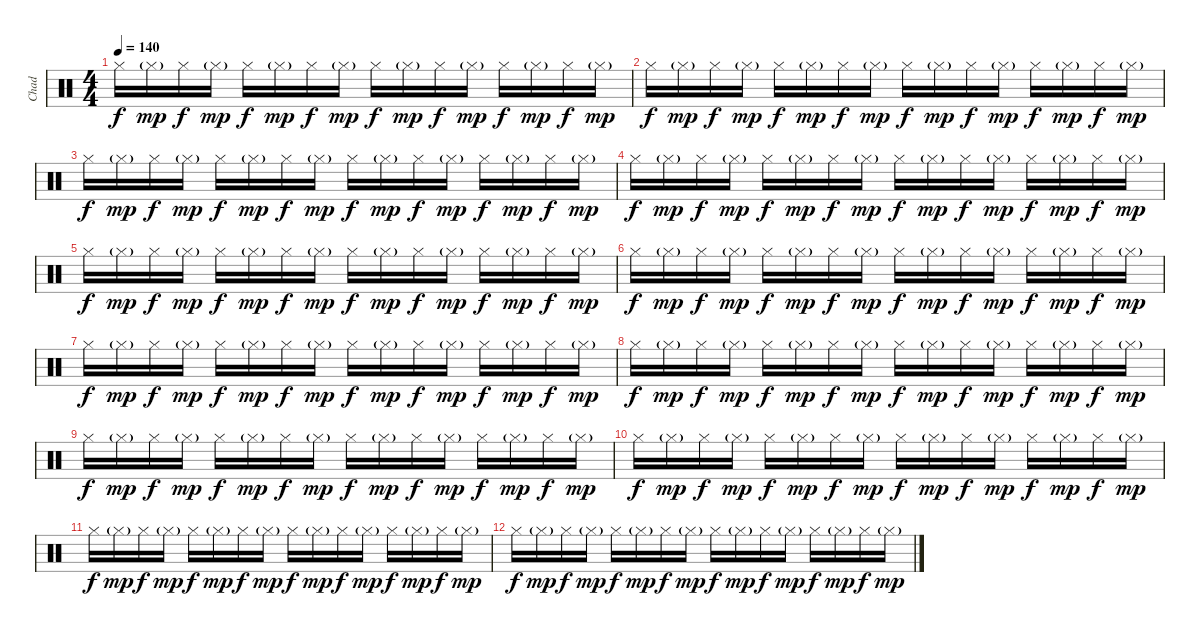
\track ("Chad" "Chad") {instrument percussion}
\staff {score}
\articulation defaults
\ts (4 4)
\tempo 140
\clef neutral
\ks c "Hi-Hat (closed)".16{dy f} "Hi-Hat (closed)"{g}.16{dy mp} "Hi-Hat (closed)".16{dy f} "Hi-Hat (closed)"{g}.16{dy mp} "Hi-Hat (closed)".16{dy f} "Hi-Hat (closed)"{g}.16{dy mp} "Hi-Hat (closed)".16{dy f} "Hi-Hat (closed)"{g}.16{dy mp} "Hi-Hat (closed)".16{dy f} "Hi-Hat (closed)"{g}.16{dy mp} "Hi-Hat (closed)".16{dy f} "Hi-Hat (closed)"{g}.16{dy mp} "Hi-Hat (closed)".16{dy f} "Hi-Hat (closed)"{g}.16{dy mp} "Hi-Hat (closed)".16{dy f} "Hi-Hat (closed)"{g}.16{dy mp}
|
"Hi-Hat (closed)".16{dy f} "Hi-Hat (closed)"{g}.16{dy mp} "Hi-Hat (closed)".16{dy f} "Hi-Hat (closed)"{g}.16{dy mp} "Hi-Hat (closed)".16{dy f} "Hi-Hat (closed)"{g}.16{dy mp} "Hi-Hat (closed)".16{dy f} "Hi-Hat (closed)"{g}.16{dy mp} "Hi-Hat (closed)".16{dy f} "Hi-Hat (closed)"{g}.16{dy mp} "Hi-Hat (closed)".16{dy f} "Hi-Hat (closed)"{g}.16{dy mp} "Hi-Hat (closed)".16{dy f} "Hi-Hat (closed)"{g}.16{dy mp} "Hi-Hat (closed)".16{dy f} "Hi-Hat (closed)"{g}.16{dy mp} |
"Hi-Hat (closed)".16{dy f} "Hi-Hat (closed)"{g}.16{dy mp} "Hi-Hat (closed)".16{dy f} "Hi-Hat (closed)"{g}.16{dy mp} "Hi-Hat (closed)".16{dy f} "Hi-Hat (closed)"{g}.16{dy mp} "Hi-Hat (closed)".16{dy f} "Hi-Hat (closed)"{g}.16{dy mp} "Hi-Hat (closed)".16{dy f} "Hi-Hat (closed)"{g}.16{dy mp} "Hi-Hat (closed)".16{dy f} "Hi-Hat (closed)"{g}.16{dy mp} "Hi-Hat (closed)".16{dy f} "Hi-Hat (closed)"{g}.16{dy mp} "Hi-Hat (closed)".16{dy f} "Hi-Hat (closed)"{g}.16{dy mp} |
"Hi-Hat (closed)".16{dy f} "Hi-Hat (closed)"{g}.16{dy mp} "Hi-Hat (closed)".16{dy f} "Hi-Hat (closed)"{g}.16{dy mp} "Hi-Hat (closed)".16{dy f} "Hi-Hat (closed)"{g}.16{dy mp} "Hi-Hat (closed)".16{dy f} "Hi-Hat (closed)"{g}.16{dy mp} "Hi-Hat (closed)".16{dy f} "Hi-Hat (closed)"{g}.16{dy mp} "Hi-Hat (closed)".16{dy f} "Hi-Hat (closed)"{g}.16{dy mp} "Hi-Hat (closed)".16{dy f} "Hi-Hat (closed)"{g}.16{dy mp} "Hi-Hat (closed)".16{dy f} "Hi-Hat (closed)"{g}.16{dy mp} |
"Hi-Hat (closed)".16{dy f} "Hi-Hat (closed)"{g}.16{dy mp} "Hi-Hat (closed)".16{dy f} "Hi-Hat (closed)"{g}.16{dy mp} "Hi-Hat (closed)".16{dy f} "Hi-Hat (closed)"{g}.16{dy mp} "Hi-Hat (closed)".16{dy f} "Hi-Hat (closed)"{g}.16{dy mp} "Hi-Hat (closed)".16{dy f} "Hi-Hat (closed)"{g}.16{dy mp} "Hi-Hat (closed)".16{dy f} "Hi-Hat (closed)"{g}.16{dy mp} "Hi-Hat (closed)".16{dy f} "Hi-Hat (closed)"{g}.16{dy mp} "Hi-Hat (closed)".16{dy f} "Hi-Hat (closed)"{g}.16{dy mp} |
"Hi-Hat (closed)".16{dy f} "Hi-Hat (closed)"{g}.16{dy mp} "Hi-Hat (closed)".16{dy f} "Hi-Hat (closed)"{g}.16{dy mp} "Hi-Hat (closed)".16{dy f} "Hi-Hat (closed)"{g}.16{dy mp} "Hi-Hat (closed)".16{dy f} "Hi-Hat (closed)"{g}.16{dy mp} "Hi-Hat (closed)".16{dy f} "Hi-Hat (closed)"{g}.16{dy mp} "Hi-Hat (closed)".16{dy f} "Hi-Hat (closed)"{g}.16{dy mp} "Hi-Hat (closed)".16{dy f} "Hi-Hat (closed)"{g}.16{dy mp} "Hi-Hat (closed)".16{dy f} "Hi-Hat (closed)"{g}.16{dy mp} |
"Hi-Hat (closed)".16{dy f} "Hi-Hat (closed)"{g}.16{dy mp} "Hi-Hat (closed)".16{dy f} "Hi-Hat (closed)"{g}.16{dy mp} "Hi-Hat (closed)".16{dy f} "Hi-Hat (closed)"{g}.16{dy mp} "Hi-Hat (closed)".16{dy f} "Hi-Hat (closed)"{g}.16{dy mp} "Hi-Hat (closed)".16{dy f} "Hi-Hat (closed)"{g}.16{dy mp} "Hi-Hat (closed)".16{dy f} "Hi-Hat (closed)"{g}.16{dy mp} "Hi-Hat (closed)".16{dy f} "Hi-Hat (closed)"{g}.16{dy mp} "Hi-Hat (closed)".16{dy f} "Hi-Hat (closed)"{g}.16{dy mp} |
"Hi-Hat (closed)".16{dy f} "Hi-Hat (closed)"{g}.16{dy mp} "Hi-Hat (closed)".16{dy f} "Hi-Hat (closed)"{g}.16{dy mp} "Hi-Hat (closed)".16{dy f} "Hi-Hat (closed)"{g}.16{dy mp} "Hi-Hat (closed)".16{dy f} "Hi-Hat (closed)"{g}.16{dy mp} "Hi-Hat (closed)".16{dy f} "Hi-Hat (closed)"{g}.16{dy mp} "Hi-Hat (closed)".16{dy f} "Hi-Hat (closed)"{g}.16{dy mp} "Hi-Hat (closed)".16{dy f} "Hi-Hat (closed)"{g}.16{dy mp} "Hi-Hat (closed)".16{dy f} "Hi-Hat (closed)"{g}.16{dy mp} |
"Hi-Hat (closed)".16{dy f} "Hi-Hat (closed)"{g}.16{dy mp} "Hi-Hat (closed)".16{dy f} "Hi-Hat (closed)"{g}.16{dy mp} "Hi-Hat (closed)".16{dy f} "Hi-Hat (closed)"{g}.16{dy mp} "Hi-Hat (closed)".16{dy f} "Hi-Hat (closed)"{g}.16{dy mp} "Hi-Hat (closed)".16{dy f} "Hi-Hat (closed)"{g}.16{dy mp} "Hi-Hat (closed)".16{dy f} "Hi-Hat (closed)"{g}.16{dy mp} "Hi-Hat (closed)".16{dy f} "Hi-Hat (closed)"{g}.16{dy mp} "Hi-Hat (closed)".16{dy f} "Hi-Hat (closed)"{g}.16{dy mp} |
"Hi-Hat (closed)".16{dy f} "Hi-Hat (closed)"{g}.16{dy mp} "Hi-Hat (closed)".16{dy f} "Hi-Hat (closed)"{g}.16{dy mp} "Hi-Hat (closed)".16{dy f} "Hi-Hat (closed)"{g}.16{dy mp} "Hi-Hat (closed)".16{dy f} "Hi-Hat (closed)"{g}.16{dy mp} "Hi-Hat (closed)".16{dy f} "Hi-Hat (closed)"{g}.16{dy mp} "Hi-Hat (closed)".16{dy f} "Hi-Hat (closed)"{g}.16{dy mp} "Hi-Hat (closed)".16{dy f} "Hi-Hat (closed)"{g}.16{dy mp} "Hi-Hat (closed)".16{dy f} "Hi-Hat (closed)"{g}.16{dy mp} |
"Hi-Hat (closed)".16{dy f} "Hi-Hat (closed)"{g}.16{dy mp} "Hi-Hat (closed)".16{dy f} "Hi-Hat (closed)"{g}.16{dy mp} "Hi-Hat (closed)".16{dy f} "Hi-Hat (closed)"{g}.16{dy mp} "Hi-Hat (closed)".16{dy f} "Hi-Hat (closed)"{g}.16{dy mp} "Hi-Hat (closed)".16{dy f} "Hi-Hat (closed)"{g}.16{dy mp} "Hi-Hat (closed)".16{dy f} "Hi-Hat (closed)"{g}.16{dy mp} "Hi-Hat (closed)".16{dy f} "Hi-Hat (closed)"{g}.16{dy mp} "Hi-Hat (closed)".16{dy f} "Hi-Hat (closed)"{g}.16{dy mp} |
"Hi-Hat (closed)".16{dy f} "Hi-Hat (closed)"{g}.16{dy mp} "Hi-Hat (closed)".16{dy f} "Hi-Hat (closed)"{g}.16{dy mp} "Hi-Hat (closed)".16{dy f} "Hi-Hat (closed)"{g}.16{dy mp} "Hi-Hat (closed)".16{dy f} "Hi-Hat (closed)"{g}.16{dy mp} "Hi-Hat (closed)".16{dy f} "Hi-Hat (closed)"{g}.16{dy mp} "Hi-Hat (closed)".16{dy f} "Hi-Hat (closed)"{g}.16{dy mp} "Hi-Hat (closed)".16{dy f} "Hi-Hat (closed)"{g}.16{dy mp} "Hi-Hat (closed)".16{dy f} "Hi-Hat (closed)"{g}.16{dy mp}
